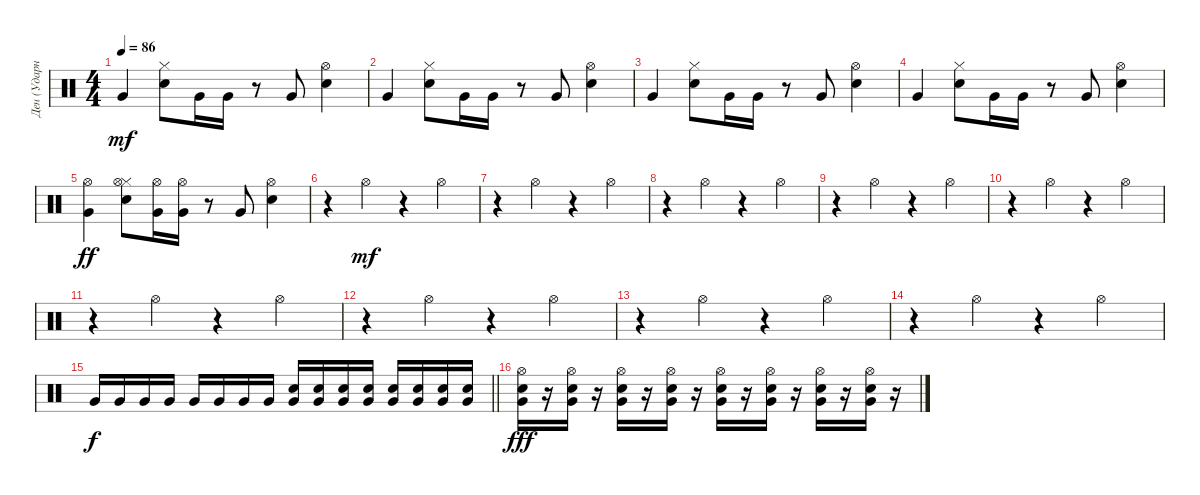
\track ("Ден (Ударные)" "Ден (Ударн") {instrument percussion}
\staff {score}
\articulation defaults
\ts (4 4)
\tempo 86
\clef neutral
\ks c "Very Low Tom (hit)".4{dy mf}
("Hi-Hat (closed)" "Electric Snare (hit)").8 "Very Low Tom (hit)".16 "Very Low Tom (hit)".16 r.8 "Very Low Tom (hit)".8 ("Hi-Hat (open)" "Electric Snare (hit)").4 |
"Very Low Tom (hit)".4 ("Hi-Hat (closed)" "Electric Snare (hit)").8 "Very Low Tom (hit)".16 "Very Low Tom (hit)".16 r.8 "Very Low Tom (hit)".8 ("Hi-Hat (open)" "Electric Snare (hit)").4 |
"Very Low Tom (hit)".4 ("Hi-Hat (closed)" "Electric Snare (hit)").8 "Very Low Tom (hit)".16 "Very Low Tom (hit)".16 r.8 "Very Low Tom (hit)".8 ("Hi-Hat (open)" "Electric Snare (hit)").4 |
"Very Low Tom (hit)".4 ("Hi-Hat (closed)" "Electric Snare (hit)").8 "Very Low Tom (hit)".16 "Very Low Tom (hit)".16 r.8 "Very Low Tom (hit)".8 ("Hi-Hat (open)" "Electric Snare (hit)").4 |
("Hi-Hat (open)" "Very Low Tom (hit)").4{dy ff} ("Hi-Hat (closed)" "Hi-Hat (open)" "Electric Snare (hit)").8 ("Hi-Hat (open)" "Very Low Tom (hit)").16 ("Hi-Hat (open)" "Very Low Tom (hit)").16 r.8 "Very Low Tom (hit)".8 ("Hi-Hat (open)" "Electric Snare (hit)").4 |
r.4 "Hi-Hat (open)".4{dy mf} r.4 "Hi-Hat (open)".4 |
r.4 "Hi-Hat (open)".4 r.4 "Hi-Hat (open)".4 |
r.4 "Hi-Hat (open)".4 r.4 "Hi-Hat (open)".4 |
r.4 "Hi-Hat (open)".4 r.4 "Hi-Hat (open)".4 |
r.4 "Hi-Hat (open)".4 r.4 "Hi-Hat (open)".4 |
r.4 "Hi-Hat (open)".4 r.4 "Hi-Hat (open)".4 |
r.4 "Hi-Hat (open)".4 r.4 "Hi-Hat (open)".4 |
r.4 "Hi-Hat (open)".4 r.4 "Hi-Hat (open)".4 |
r.4 "Hi-Hat (open)".4 r.4 "Hi-Hat (open)".4{volume 6} |
\barLineRight lightlight "Very Low Tom (hit)".16{dy f volume 16} "Very Low Tom (hit)".16 "Very Low Tom (hit)".16 "Very Low Tom (hit)".16 "Very Low Tom (hit)".16 "Very Low Tom (hit)".16 "Very Low Tom (hit)".16 "Very Low Tom (hit)".16
("Electric Snare (hit)" "Very Low Tom (hit)").16 ("Electric Snare (hit)" "Very Low Tom (hit)").16 ("Electric Snare (hit)" "Very Low Tom (hit)").16 ("Electric Snare (hit)" "Very Low Tom (hit)").16 ("Electric Snare (hit)" "Very Low Tom (hit)").16 ("Electric Snare (hit)" "Very Low Tom (hit)").16 ("Electric Snare (hit)" "Very Low Tom (hit)").16 ("Electric Snare (hit)" "Very Low Tom (hit)").16 |
("Hi-Hat (open)" "Very Low Tom (hit)" "Electric Snare (hit)").16{dy fff} r.16 ("Hi-Hat (open)" "Very Low Tom (hit)" "Electric Snare (hit)").16 r.16 ("Hi-Hat (open)" "Very Low Tom (hit)" "Electric Snare (hit)").16 r.16 ("Hi-Hat (open)" "Very Low Tom (hit)" "Electric Snare (hit)").16 r.16 ("Hi-Hat (open)" "Very Low Tom (hit)" "Electric Snare (hit)").16 r.16 ("Hi-Hat (open)" "Very Low Tom (hit)" "Electric Snare (hit)").16 r.16 ("Hi-Hat (open)" "Very Low Tom (hit)" "Electric Snare (hit)").16 r.16 ("Hi-Hat (open)" "Very Low Tom (hit)" "Electric Snare (hit)").16 r.16
